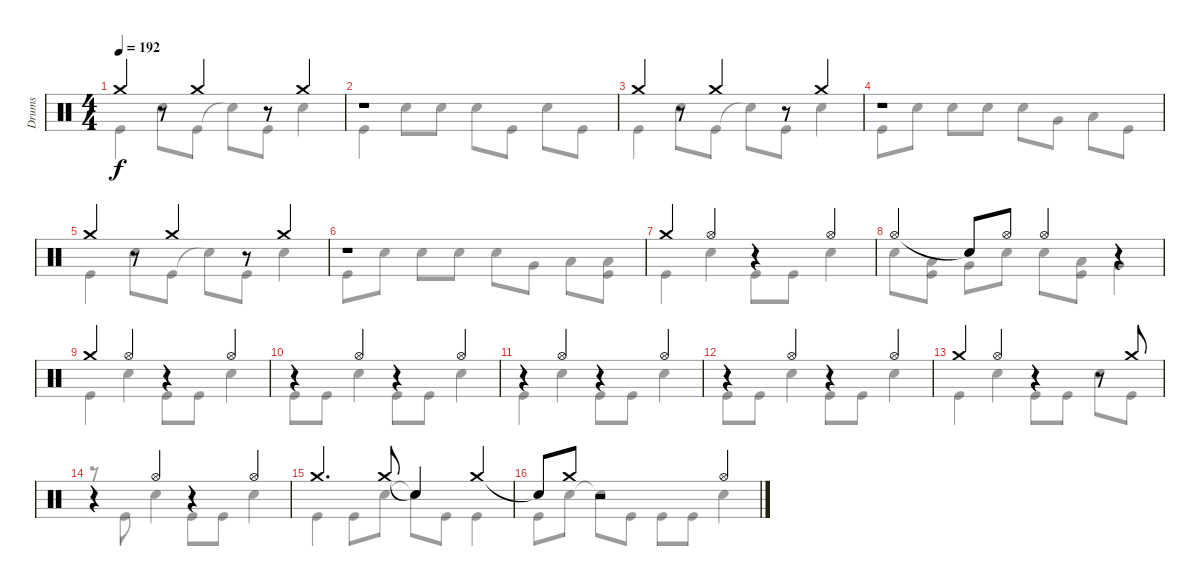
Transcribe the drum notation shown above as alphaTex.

\track ("Drums" "Drums") {instrument percussion}
\staff {score}
\articulation defaults
\voice
\ts (4 4)
\tempo 192
\clef neutral
\ks c "Crash medium (hit)".4{dy f beam Up}
r.8 "Crash medium (hit)".4{beam Up} r.8 "Crash medium (hit)".4{beam Up} |
r.1 |
"Crash medium (hit)".4{beam Up} r.8 "Crash medium (hit)".4{beam Up} r.8 "Crash medium (hit)".4{beam Up} |
r.1 |
"Crash medium (hit)".4{beam Up} r.8 "Crash medium (hit)".4{beam Up} r.8 "Crash medium (hit)".4{beam Up} |
r.1 |
"Crash medium (hit)".4 "Hi-Hat (open)".4 r.4 "Hi-Hat (open)".4 |
"Hi-Hat (open)".4 "Snare (hit)"{t}.8 "Hi-Hat (open)".8 "Hi-Hat (open)".4 r.4 |
"Crash medium (hit)".4 "Hi-Hat (open)".4 r.4 "Hi-Hat (open)".4 |
r.4 "Hi-Hat (open)".4 r.4 "Hi-Hat (open)".4 |
r.4 "Hi-Hat (open)".4 r.4 "Hi-Hat (open)".4 |
r.4 "Hi-Hat (open)".4 r.4 "Hi-Hat (open)".4 |
"Crash medium (hit)".4 "Hi-Hat (open)".4 r.4 r.8 "Crash medium (hit)".8 |
r.4 "Hi-Hat (open)".4 r.4 "Hi-Hat (open)".4 |
"Crash medium (hit)".4{d} "Crash medium (hit)".8 "Snare (hit)"{t}.4 "Crash medium (hit)".4 |
"Snare (hit)"{t}.8 "Crash medium (hit)".8 r.2 "Hi-Hat (open)".4
\voice
\clef neutral
\ottava regular
\simile none
\ks c "Kick (hit)".4{dy f} "Snare (hit) 2".8 "Kick (hit)".8 "Snare (hit)"{t}.8 "Kick (hit)".8 "Snare (hit) 2".4
|
"Kick (hit)".4 "Snare (hit) 2".8 "Snare (hit) 2".8 "Snare (hit) 2".8 "Kick (hit)".8 "Snare (hit) 2".8 "Kick (hit)".8 |
"Kick (hit)".4 "Snare (hit) 2".8 "Kick (hit)".8 "Snare (hit)"{t}.8 "Kick (hit)".8 "Snare (hit) 2".4 |
"Kick (hit)".8 "Snare (hit) 2".8 "Snare (hit) 2".8 "Snare (hit) 2".8 "Snare (hit) 2".8 "Very Low Tom (hit)".8 "Low Floor Tom (hit)".8 "Kick (hit)".8 |
"Kick (hit)".4 "Snare (hit) 2".8 "Kick (hit)".8 "Snare (hit)"{t}.8 "Kick (hit)".8 "Snare (hit) 2".4 |
"Kick (hit)".8 "Snare (hit) 2".8 "Snare (hit) 2".8 "Snare (hit) 2".8 "Snare (hit) 2".8 "Very Low Tom (hit)".8 "Low Floor Tom (hit)".8 ("Low Floor Tom (hit)" "Kick (hit)").8 |
"Kick (hit)".4 "Snare (hit) 2".4 "Kick (hit)".8 "Kick (hit)".8 "Snare (hit) 2".4 |
"Snare (hit) 2".8 ("Low Tom (hit)" "Kick (hit)").8 "Very Low Tom (hit)".8 "Snare (hit) 2".8 "Snare (hit) 2".8 ("Low Tom (hit)" "Kick (hit)").8 "Very Low Tom (hit)".4 |
"Kick (hit)".4 "Snare (hit) 2".4 "Kick (hit)".8 "Kick (hit)".8 "Snare (hit) 2".4 |
"Kick (hit)".8 "Kick (hit)".8 "Snare (hit) 2".4 "Kick (hit)".8 "Kick (hit)".8 "Snare (hit) 2".4 |
"Kick (hit)".4 "Snare (hit) 2".4 "Kick (hit)".8 "Kick (hit)".8 "Snare (hit) 2".4 |
"Kick (hit)".8 "Kick (hit)".8 "Snare (hit) 2".4 "Kick (hit)".8 "Kick (hit)".8 "Snare (hit) 2".4 |
"Kick (hit)".4 "Snare (hit) 2".4 "Kick (hit)".8 "Kick (hit)".8 "Snare (hit) 2".8 "Kick (hit)".8 |
r.8 "Kick (hit)".8 "Snare (hit) 2".4 "Kick (hit)".8 "Kick (hit)".8 "Snare (hit) 2".4 |
"Kick (hit)".4 "Kick (hit)".8 "Snare (hit) 2".8 "Snare (hit)"{t}.8 "Kick (hit)".8 "Kick (hit)".4 |
"Kick (hit)".8 "Snare (hit) 2".8 "Snare (hit)"{t}.8 "Kick (hit)".8 "Kick (hit)".8 "Kick (hit)".8 "Snare (hit) 2".4
